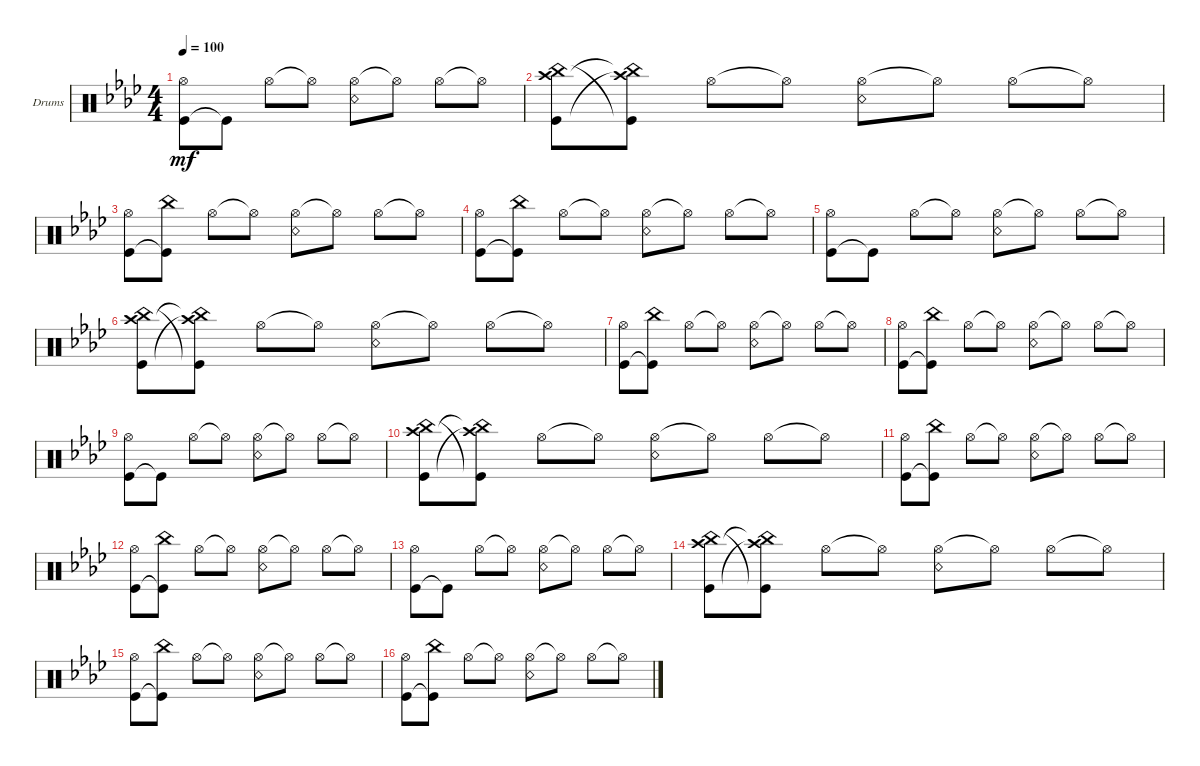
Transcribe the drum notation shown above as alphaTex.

\defaultSystemsLayout 4
\bracketExtendMode groupsimilarinstruments
\firstSystemTrackNameOrientation horizontal
\otherSystemsTrackNameOrientation horizontal
\track ("Drumkit" "Drums") {multiBarRest instrument percussion}
\staff {score}
\articulation defaults
\ts (4 4)
\tempo 100
\clef neutral
\ks fminor
("Kick (hit)" "Hi-Hat (open)").8{dy mf} "Kick (hit)"{t}.8 "Hi-Hat (open)".8 "Hi-Hat (open)"{t}.8 ("Hi-Hat (open)" "Snare (rim shot)").8 "Hi-Hat (open)"{t}.8 "Hi-Hat (open)".8 "Hi-Hat (open)"{t}.8 |
("China (hit)" "Crash high (hit)" "Kick (hit)").8 ("Kick (hit)"{t} "China (hit)"{t} "Crash high (hit)"{t}).8 "Hi-Hat (open)".8 "Hi-Hat (open)"{t}.8 ("Hi-Hat (open)" "Snare (rim shot)").8 "Hi-Hat (open)"{t}.8 "Hi-Hat (open)".8 "Hi-Hat (open)"{t}.8 |
("Kick (hit)" "Hi-Hat (open)").8 ("Kick (hit)"{t} "China (hit)").8 "Hi-Hat (open)".8 "Hi-Hat (open)"{t}.8 ("Hi-Hat (open)" "Snare (rim shot)").8 "Hi-Hat (open)"{t}.8 "Hi-Hat (open)".8 "Hi-Hat (open)"{t}.8 |
("Kick (hit)" "Hi-Hat (open)").8 ("Kick (hit)"{t} "China (hit)").8 "Hi-Hat (open)".8 "Hi-Hat (open)"{t}.8 ("Hi-Hat (open)" "Snare (rim shot)").8 "Hi-Hat (open)"{t}.8 "Hi-Hat (open)".8 "Hi-Hat (open)"{t}.8 |
("Kick (hit)" "Hi-Hat (open)").8 "Kick (hit)"{t}.8 "Hi-Hat (open)".8 "Hi-Hat (open)"{t}.8 ("Hi-Hat (open)" "Snare (rim shot)").8 "Hi-Hat (open)"{t}.8 "Hi-Hat (open)".8 "Hi-Hat (open)"{t}.8 |
("China (hit)" "Crash high (hit)" "Kick (hit)").8 ("Kick (hit)"{t} "China (hit)"{t} "Crash high (hit)"{t}).8 "Hi-Hat (open)".8 "Hi-Hat (open)"{t}.8 ("Hi-Hat (open)" "Snare (rim shot)").8 "Hi-Hat (open)"{t}.8 "Hi-Hat (open)".8 "Hi-Hat (open)"{t}.8 |
("Kick (hit)" "Hi-Hat (open)").8 ("Kick (hit)"{t} "China (hit)").8 "Hi-Hat (open)".8 "Hi-Hat (open)"{t}.8 ("Hi-Hat (open)" "Snare (rim shot)").8 "Hi-Hat (open)"{t}.8 "Hi-Hat (open)".8 "Hi-Hat (open)"{t}.8 |
("Kick (hit)" "Hi-Hat (open)").8 ("Kick (hit)"{t} "China (hit)").8 "Hi-Hat (open)".8 "Hi-Hat (open)"{t}.8 ("Hi-Hat (open)" "Snare (rim shot)").8 "Hi-Hat (open)"{t}.8 "Hi-Hat (open)".8 "Hi-Hat (open)"{t}.8 |
("Kick (hit)" "Hi-Hat (open)").8 "Kick (hit)"{t}.8 "Hi-Hat (open)".8 "Hi-Hat (open)"{t}.8 ("Hi-Hat (open)" "Snare (rim shot)").8 "Hi-Hat (open)"{t}.8 "Hi-Hat (open)".8 "Hi-Hat (open)"{t}.8 |
("China (hit)" "Crash high (hit)" "Kick (hit)").8 ("Kick (hit)"{t} "China (hit)"{t} "Crash high (hit)"{t}).8 "Hi-Hat (open)".8 "Hi-Hat (open)"{t}.8 ("Hi-Hat (open)" "Snare (rim shot)").8 "Hi-Hat (open)"{t}.8 "Hi-Hat (open)".8 "Hi-Hat (open)"{t}.8 |
("Kick (hit)" "Hi-Hat (open)").8 ("Kick (hit)"{t} "China (hit)").8 "Hi-Hat (open)".8 "Hi-Hat (open)"{t}.8 ("Hi-Hat (open)" "Snare (rim shot)").8 "Hi-Hat (open)"{t}.8 "Hi-Hat (open)".8 "Hi-Hat (open)"{t}.8 |
("Kick (hit)" "Hi-Hat (open)").8 ("Kick (hit)"{t} "China (hit)").8 "Hi-Hat (open)".8 "Hi-Hat (open)"{t}.8 ("Hi-Hat (open)" "Snare (rim shot)").8 "Hi-Hat (open)"{t}.8 "Hi-Hat (open)".8 "Hi-Hat (open)"{t}.8 |
("Kick (hit)" "Hi-Hat (open)").8 "Kick (hit)"{t}.8 "Hi-Hat (open)".8 "Hi-Hat (open)"{t}.8 ("Hi-Hat (open)" "Snare (rim shot)").8 "Hi-Hat (open)"{t}.8 "Hi-Hat (open)".8 "Hi-Hat (open)"{t}.8 |
("China (hit)" "Crash high (hit)" "Kick (hit)").8 ("Kick (hit)"{t} "China (hit)"{t} "Crash high (hit)"{t}).8 "Hi-Hat (open)".8 "Hi-Hat (open)"{t}.8 ("Hi-Hat (open)" "Snare (rim shot)").8 "Hi-Hat (open)"{t}.8 "Hi-Hat (open)".8 "Hi-Hat (open)"{t}.8 |
("Kick (hit)" "Hi-Hat (open)").8 ("Kick (hit)"{t} "China (hit)").8 "Hi-Hat (open)".8 "Hi-Hat (open)"{t}.8 ("Hi-Hat (open)" "Snare (rim shot)").8 "Hi-Hat (open)"{t}.8 "Hi-Hat (open)".8 "Hi-Hat (open)"{t}.8 |
("Kick (hit)" "Hi-Hat (open)").8 ("Kick (hit)"{t} "China (hit)").8 "Hi-Hat (open)".8 "Hi-Hat (open)"{t}.8 ("Hi-Hat (open)" "Snare (rim shot)").8 "Hi-Hat (open)"{t}.8 "Hi-Hat (open)".8 "Hi-Hat (open)"{t}.8
